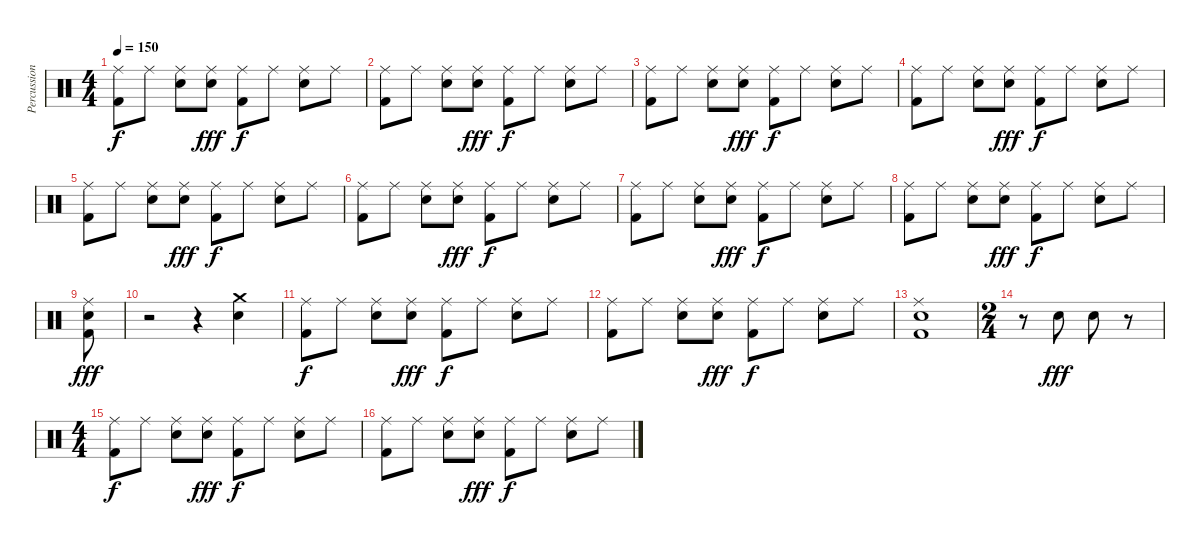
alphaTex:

\track ("Percussions" "Percussion") {instrument percussion}
\staff {score}
\articulation defaults
\ts (4 4)
\tempo 150
\clef neutral
\ks c
("Ride (middle)" "Kick (hit) 2").8{dy f} "Ride (middle)".8 ("Ride (middle)" "Electric Snare (hit)").8 ("Ride (middle)" "Electric Snare (hit)").8{dy fff} ("Ride (middle)" "Kick (hit) 2").8{dy f} "Ride (middle)".8 ("Ride (middle)" "Electric Snare (hit)").8 "Ride (middle)".8 |
("Ride (middle)" "Kick (hit) 2").8 "Ride (middle)".8 ("Ride (middle)" "Electric Snare (hit)").8 ("Ride (middle)" "Electric Snare (hit)").8{dy fff} ("Ride (middle)" "Kick (hit) 2").8{dy f} "Ride (middle)".8 ("Ride (middle)" "Electric Snare (hit)").8 "Ride (middle)".8 |
("Ride (middle)" "Kick (hit) 2").8 "Ride (middle)".8 ("Ride (middle)" "Electric Snare (hit)").8 ("Ride (middle)" "Electric Snare (hit)").8{dy fff} ("Ride (middle)" "Kick (hit) 2").8{dy f} "Ride (middle)".8 ("Ride (middle)" "Electric Snare (hit)").8 "Ride (middle)".8 |
("Ride (middle)" "Kick (hit) 2").8 "Ride (middle)".8 ("Ride (middle)" "Electric Snare (hit)").8 ("Ride (middle)" "Electric Snare (hit)").8{dy fff} ("Ride (middle)" "Kick (hit) 2").8{dy f} "Ride (middle)".8 ("Ride (middle)" "Electric Snare (hit)").8 "Ride (middle)".8 |
("Ride (middle)" "Kick (hit) 2").8 "Ride (middle)".8 ("Ride (middle)" "Electric Snare (hit)").8 ("Ride (middle)" "Electric Snare (hit)").8{dy fff} ("Ride (middle)" "Kick (hit) 2").8{dy f} "Ride (middle)".8 ("Ride (middle)" "Electric Snare (hit)").8 "Ride (middle)".8 |
("Ride (middle)" "Kick (hit) 2").8 "Ride (middle)".8 ("Ride (middle)" "Electric Snare (hit)").8 ("Ride (middle)" "Electric Snare (hit)").8{dy fff} ("Ride (middle)" "Kick (hit) 2").8{dy f} "Ride (middle)".8 ("Ride (middle)" "Electric Snare (hit)").8 "Ride (middle)".8 |
("Ride (middle)" "Kick (hit) 2").8 "Ride (middle)".8 ("Ride (middle)" "Electric Snare (hit)").8 ("Ride (middle)" "Electric Snare (hit)").8{dy fff} ("Ride (middle)" "Kick (hit) 2").8{dy f} "Ride (middle)".8 ("Ride (middle)" "Electric Snare (hit)").8 "Ride (middle)".8 |
("Ride (middle)" "Kick (hit) 2").8 "Ride (middle)".8 ("Ride (middle)" "Electric Snare (hit)").8 ("Ride (middle)" "Electric Snare (hit)").8{dy fff} ("Ride (middle)" "Kick (hit) 2").8{dy f} "Ride (middle)".8 ("Ride (middle)" "Electric Snare (hit)").8 "Ride (middle)".8 |
("Ride (middle)" "Electric Snare (hit)" "Kick (hit) 2").8{dy fff} |
r.2 r.4 ("Crash medium (hit)" "Electric Snare (hit)").4 |
("Ride (middle)" "Kick (hit) 2").8{dy f} "Ride (middle)".8 ("Ride (middle)" "Electric Snare (hit)").8 ("Ride (middle)" "Electric Snare (hit)").8{dy fff} ("Ride (middle)" "Kick (hit) 2").8{dy f} "Ride (middle)".8 ("Ride (middle)" "Electric Snare (hit)").8 "Ride (middle)".8 |
("Ride (middle)" "Kick (hit) 2").8 "Ride (middle)".8 ("Ride (middle)" "Electric Snare (hit)").8 ("Ride (middle)" "Electric Snare (hit)").8{dy fff} ("Ride (middle)" "Kick (hit) 2").8{dy f} "Ride (middle)".8 ("Ride (middle)" "Electric Snare (hit)").8 "Ride (middle)".8 |
("Ride (middle)" "Electric Snare (hit)" "Kick (hit) 2").1 |
\ts (2 4)
r.8 "Electric Snare (hit)".8{dy fff} "Electric Snare (hit)".8 r.8 |
\ts (4 4)
("Ride (middle)" "Kick (hit) 2").8{dy f} "Ride (middle)".8 ("Ride (middle)" "Electric Snare (hit)").8 ("Ride (middle)" "Electric Snare (hit)").8{dy fff} ("Ride (middle)" "Kick (hit) 2").8{dy f} "Ride (middle)".8 ("Ride (middle)" "Electric Snare (hit)").8 "Ride (middle)".8 |
("Ride (middle)" "Kick (hit) 2").8 "Ride (middle)".8 ("Ride (middle)" "Electric Snare (hit)").8 ("Ride (middle)" "Electric Snare (hit)").8{dy fff} ("Ride (middle)" "Kick (hit) 2").8{dy f} "Ride (middle)".8 ("Ride (middle)" "Electric Snare (hit)").8 "Ride (middle)".8
